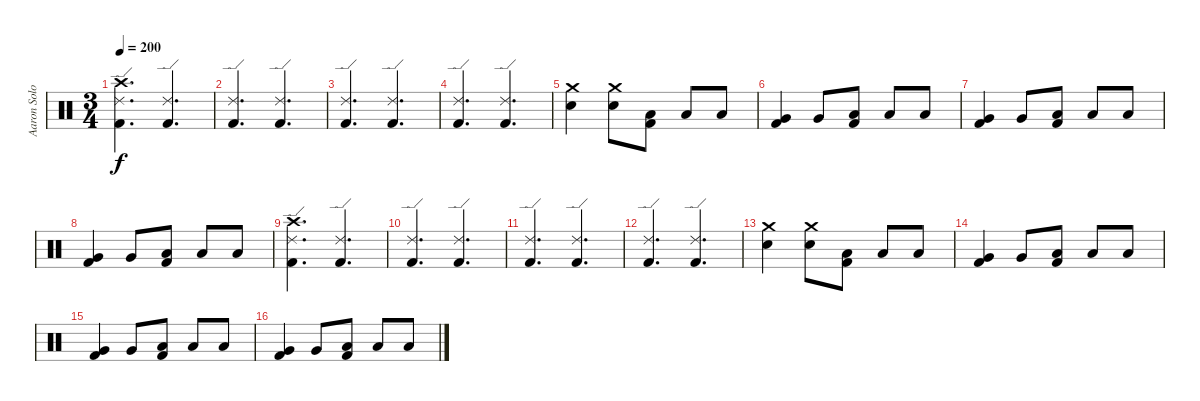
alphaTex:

\track ("Aaron Solowoniuk" "Aaron Solo") {instrument percussion}
\staff {score}
\articulation defaults
\ts (3 4)
\tempo 200
\clef neutral
\ks c
("Crash high (hit)" "Ride (edge) 2" "Kick (hit) 2").4{d dy f} ("Ride (edge) 2" "Kick (hit) 2").4{d} |
("Ride (edge) 2" "Kick (hit) 2").4{d} ("Ride (edge) 2" "Kick (hit) 2").4{d} |
("Ride (edge) 2" "Kick (hit) 2").4{d} ("Ride (edge) 2" "Kick (hit) 2").4{d} |
("Ride (edge) 2" "Kick (hit) 2").4{d} ("Ride (edge) 2" "Kick (hit) 2").4{d} |
("Crash medium (hit)" "Snare (hit) 2").4 ("Crash medium (hit)" "Snare (hit) 2").8 ("Low Floor Tom (hit)" "Kick (hit) 2").8 "Low Floor Tom (hit)".8 "Low Floor Tom (hit)".8 |
("Very Low Tom (hit)" "Kick (hit) 2").4 "Very Low Tom (hit)".8 ("Low Floor Tom (hit)" "Kick (hit) 2").8 "Low Floor Tom (hit)".8 "Low Floor Tom (hit)".8 |
("Very Low Tom (hit)" "Kick (hit) 2").4 "Very Low Tom (hit)".8 ("Low Floor Tom (hit)" "Kick (hit) 2").8 "Low Floor Tom (hit)".8 "Low Floor Tom (hit)".8 |
("Very Low Tom (hit)" "Kick (hit) 2").4 "Very Low Tom (hit)".8 ("Low Floor Tom (hit)" "Kick (hit) 2").8 "Low Floor Tom (hit)".8 "Low Floor Tom (hit)".8 |
("Crash high (hit)" "Ride (edge) 2" "Kick (hit) 2").4{d} ("Ride (edge) 2" "Kick (hit) 2").4{d} |
("Ride (edge) 2" "Kick (hit) 2").4{d} ("Ride (edge) 2" "Kick (hit) 2").4{d} |
("Ride (edge) 2" "Kick (hit) 2").4{d} ("Ride (edge) 2" "Kick (hit) 2").4{d} |
("Ride (edge) 2" "Kick (hit) 2").4{d} ("Ride (edge) 2" "Kick (hit) 2").4{d} |
("Crash medium (hit)" "Snare (hit) 2").4 ("Crash medium (hit)" "Snare (hit) 2").8 ("Low Floor Tom (hit)" "Kick (hit) 2").8 "Low Floor Tom (hit)".8 "Low Floor Tom (hit)".8 |
("Very Low Tom (hit)" "Kick (hit) 2").4 "Very Low Tom (hit)".8 ("Low Floor Tom (hit)" "Kick (hit) 2").8 "Low Floor Tom (hit)".8 "Low Floor Tom (hit)".8 |
("Very Low Tom (hit)" "Kick (hit) 2").4 "Very Low Tom (hit)".8 ("Low Floor Tom (hit)" "Kick (hit) 2").8 "Low Floor Tom (hit)".8 "Low Floor Tom (hit)".8 |
("Very Low Tom (hit)" "Kick (hit) 2").4 "Very Low Tom (hit)".8 ("Low Floor Tom (hit)" "Kick (hit) 2").8 "Low Floor Tom (hit)".8 "Low Floor Tom (hit)".8
